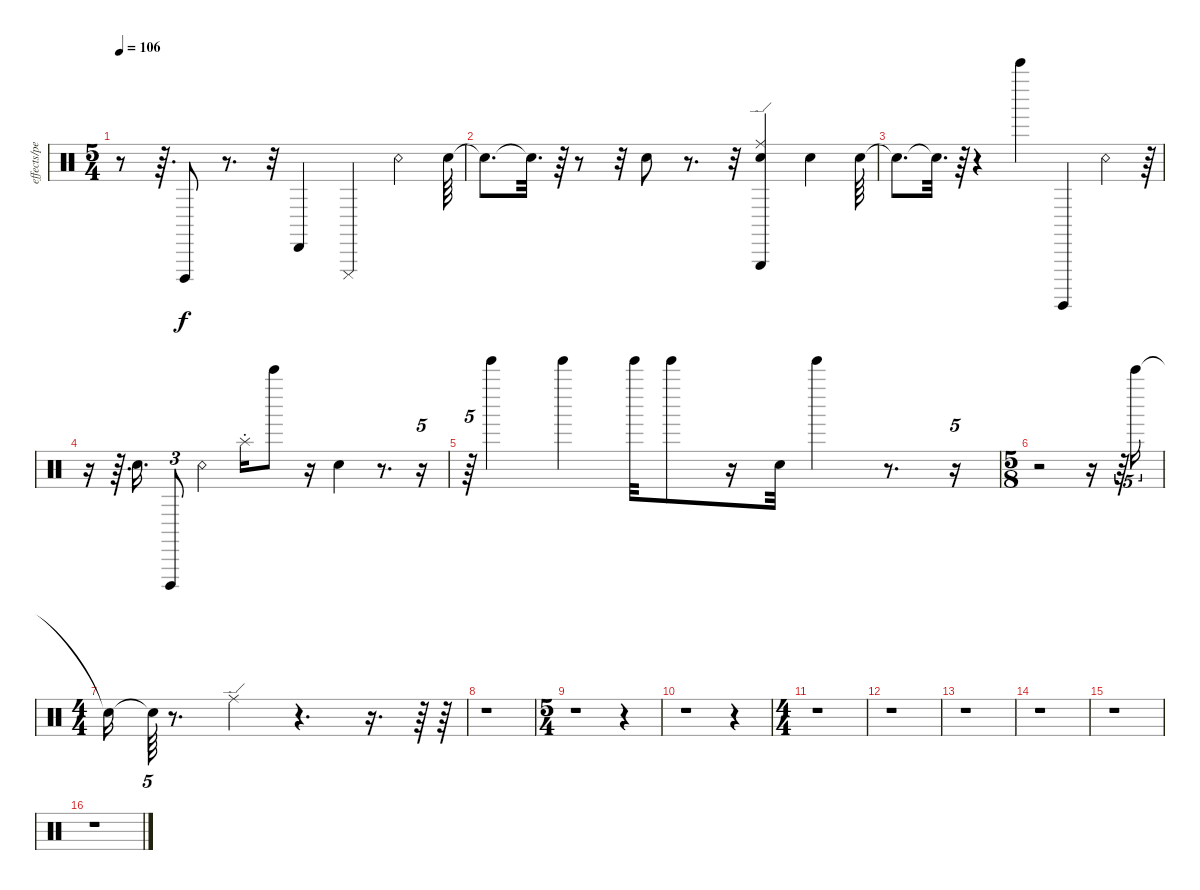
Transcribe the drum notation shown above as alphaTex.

\track ("effects/percussion" "effects/pe") {instrument percussion}
\staff {score}
\articulation defaults
\ts (5 4)
\tempo 106
\clef neutral
\ks c
r.8{dy f} r.64{d} "Cuica (open)".8 r.8{d} r.32 "Cabasa (hit)".4 "Cuica (mute)".4 "Snare (rim shot)".4 "Snare (hit)".64 |
"Snare (hit)"{t}.8{d} "Snare (hit)"{t}.32{d} r.64 r.8 r.32 "Snare (hit)".8 r.8{d} r.32 ("Snare (hit)" "Ride (edge)" "Triangle (hit)").4 "Snare (hit)".4 "Snare (hit)".64 |
"Snare (hit)"{t}.8{d} "Snare (hit)"{t}.32{d} r.64 r.4 "Bell Tree (hit)".4 "Surdo (hit)".4 "Snare (rim shot)".4 r.64 |
r.16 r.64{d} "Snare (hit)".16{d} "Cuica (open)".8{tu (3 2)} "Snare (rim shot)".4 "Splash (choke)".16 "Bell Tree (hit)".8 r.16 "Snare (hit)".4 r.8{d} r.16{tu (5 4)} |
r.64{tu (5 4)} "Tinkle Bell (hit)".4 "Tinkle Bell (hit)".4 "Tinkle Bell (hit)".32 "Tinkle Bell (hit)".8 r.16 "Snare (hit)".32 "Tinkle Bell (hit)".4 r.8{d} r.16{tu (5 4)} |
\ts (5 8)
r.2 r.16 r.64{tu (5 4)} "Bell Tree (hit)".16{tu (5 4)} |
\ts (4 4)
"Snare (hit)"{t}.16 "Snare (hit)"{t}.64{tu (5 4)} r.8{d} "Ride (edge)".4 r.4{d} r.16{d} r.64 r.64 |
r.1 |
\ts (5 4)
r.1 r.4 |
r.1 r.4 |
\ts (4 4)
r.1 |
r.1 |
r.1 |
r.1 |
r.1 |
r.1
